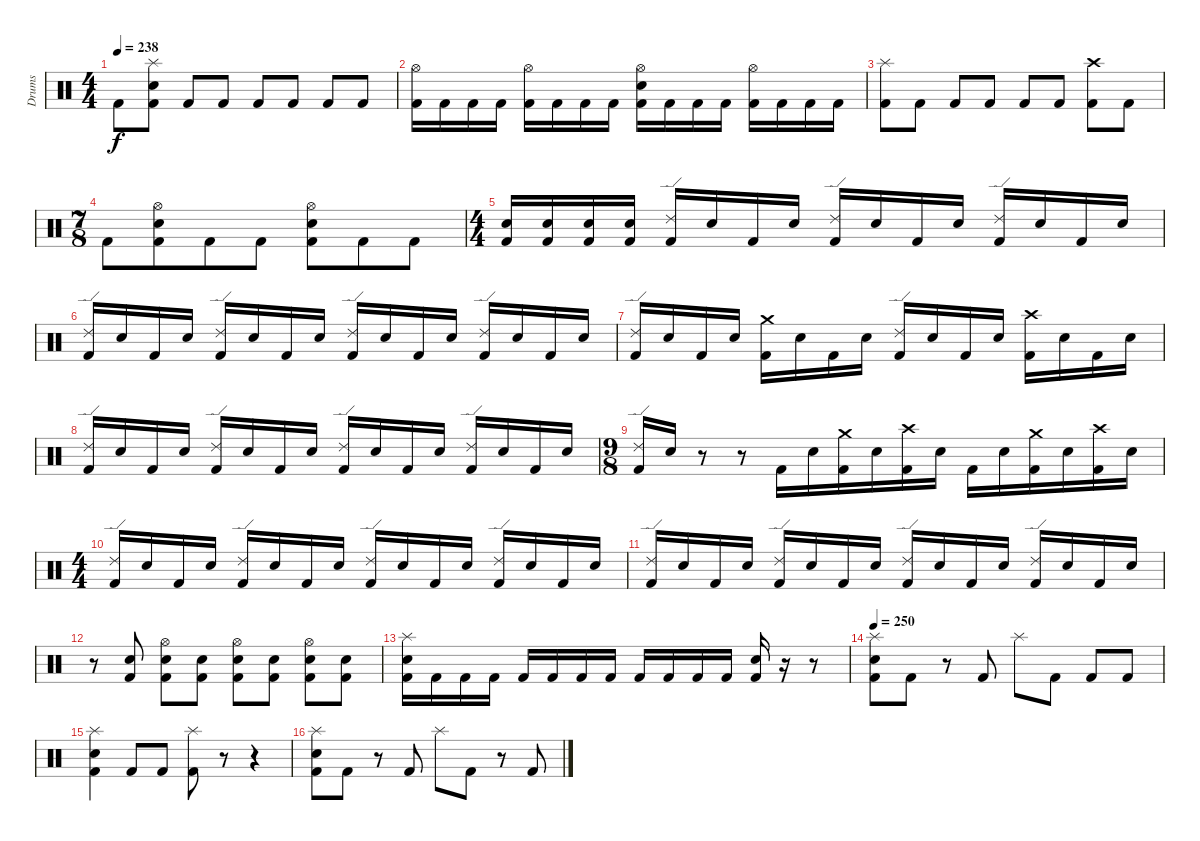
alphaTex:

\track ("Drums" "Drums") {instrument percussion}
\staff {score}
\articulation defaults
\ts (4 4)
\tempo 238
\clef neutral
\ks c "Kick (hit) 2".8{dy f}
("Kick (hit) 2" "Electric Snare (hit)" "Splash (hit)").8 "Kick (hit) 2".8 "Kick (hit) 2".8 "Kick (hit) 2".8 "Kick (hit) 2".8 "Kick (hit) 2".8 "Kick (hit) 2".8 |
("Kick (hit) 2" "Hi-Hat (open)").16 "Kick (hit) 2".16 "Kick (hit) 2".16 "Kick (hit) 2".16 ("Kick (hit) 2" "Hi-Hat (open)").16 "Kick (hit) 2".16 "Kick (hit) 2".16 "Kick (hit) 2".16 ("Kick (hit) 2" "Electric Snare (hit)" "Hi-Hat (open)").16 "Kick (hit) 2".16 "Kick (hit) 2".16 "Kick (hit) 2".16 ("Kick (hit) 2" "Hi-Hat (open)").16 "Kick (hit) 2".16 "Kick (hit) 2".16 "Kick (hit) 2".16 |
("Kick (hit) 2" "Splash (hit)").8 "Kick (hit) 2".8 "Kick (hit) 2".8 "Kick (hit) 2".8 "Kick (hit) 2".8 "Kick (hit) 2".8 ("Kick (hit) 2" "Crash high (hit)").8 "Kick (hit) 2".8 |
\ts (7 8)
"Kick (hit) 2".8 ("Kick (hit) 2" "Electric Snare (hit)" "Hi-Hat (open)").8 "Kick (hit) 2".8 "Kick (hit) 2".8 ("Kick (hit) 2" "Electric Snare (hit)" "Hi-Hat (open)").8 "Kick (hit) 2".8 "Kick (hit) 2".8 |
\ts (4 4)
("Kick (hit) 2" "Electric Snare (hit)").16 ("Kick (hit) 2" "Electric Snare (hit)").16 ("Kick (hit) 2" "Electric Snare (hit)").16 ("Kick (hit) 2" "Electric Snare (hit)").16 ("Kick (hit) 2" "Ride (edge) 2").16 "Electric Snare (hit)".16 "Kick (hit) 2".16 "Electric Snare (hit)".16 ("Kick (hit) 2" "Ride (edge) 2").16 "Electric Snare (hit)".16 "Kick (hit) 2".16 "Electric Snare (hit)".16 ("Kick (hit) 2" "Ride (edge) 2").16 "Electric Snare (hit)".16 "Kick (hit) 2".16 "Electric Snare (hit)".16 |
("Kick (hit) 2" "Ride (edge) 2").16 "Electric Snare (hit)".16 "Kick (hit) 2".16 "Electric Snare (hit)".16 ("Kick (hit) 2" "Ride (edge) 2").16 "Electric Snare (hit)".16 "Kick (hit) 2".16 "Electric Snare (hit)".16 ("Kick (hit) 2" "Ride (edge) 2").16 "Electric Snare (hit)".16 "Kick (hit) 2".16 "Electric Snare (hit)".16 ("Kick (hit) 2" "Ride (edge) 2").16 "Electric Snare (hit)".16 "Kick (hit) 2".16 "Electric Snare (hit)".16 |
("Kick (hit) 2" "Ride (edge) 2").16 "Electric Snare (hit)".16 "Kick (hit) 2".16 "Electric Snare (hit)".16 ("Kick (hit) 2" "Crash medium (hit)").16 "Electric Snare (hit)".16 "Kick (hit) 2".16 "Electric Snare (hit)".16 ("Kick (hit) 2" "Ride (edge) 2").16 "Electric Snare (hit)".16 "Kick (hit) 2".16 "Electric Snare (hit)".16 ("Kick (hit) 2" "Crash high (hit)").16 "Electric Snare (hit)".16 "Kick (hit) 2".16 "Electric Snare (hit)".16 |
("Kick (hit) 2" "Ride (edge) 2").16 "Electric Snare (hit)".16 "Kick (hit) 2".16 "Electric Snare (hit)".16 ("Kick (hit) 2" "Ride (edge) 2").16 "Electric Snare (hit)".16 "Kick (hit) 2".16 "Electric Snare (hit)".16 ("Kick (hit) 2" "Ride (edge) 2").16 "Electric Snare (hit)".16 "Kick (hit) 2".16 "Electric Snare (hit)".16 ("Kick (hit) 2" "Ride (edge) 2").16 "Electric Snare (hit)".16 "Kick (hit) 2".16 "Electric Snare (hit)".16 |
\ts (9 8)
("Kick (hit) 2" "Ride (edge) 2").16 "Electric Snare (hit)".16 r.8 r.8 "Kick (hit) 2".16 "Electric Snare (hit)".16 ("Kick (hit) 2" "Crash medium (hit)").16 "Electric Snare (hit)".16 ("Kick (hit) 2" "Crash high (hit)").16 "Electric Snare (hit)".16 "Kick (hit) 2".16 "Electric Snare (hit)".16 ("Kick (hit) 2" "Crash medium (hit)").16 "Electric Snare (hit)".16 ("Kick (hit) 2" "Crash high (hit)").16 "Electric Snare (hit)".16 |
\ts (4 4)
("Kick (hit) 2" "Ride (edge) 2").16 "Electric Snare (hit)".16 "Kick (hit) 2".16 "Electric Snare (hit)".16 ("Kick (hit) 2" "Ride (edge) 2").16 "Electric Snare (hit)".16 "Kick (hit) 2".16 "Electric Snare (hit)".16 ("Kick (hit) 2" "Ride (edge) 2").16 "Electric Snare (hit)".16 "Kick (hit) 2".16 "Electric Snare (hit)".16 ("Kick (hit) 2" "Ride (edge) 2").16 "Electric Snare (hit)".16 "Kick (hit) 2".16 "Electric Snare (hit)".16 |
("Kick (hit) 2" "Ride (edge) 2").16 "Electric Snare (hit)".16 "Kick (hit) 2".16 "Electric Snare (hit)".16 ("Kick (hit) 2" "Ride (edge) 2").16 "Electric Snare (hit)".16 "Kick (hit) 2".16 "Electric Snare (hit)".16 ("Kick (hit) 2" "Ride (edge) 2").16 "Electric Snare (hit)".16 "Kick (hit) 2".16 "Electric Snare (hit)".16 ("Kick (hit) 2" "Ride (edge) 2").16 "Electric Snare (hit)".16 "Kick (hit) 2".16 "Electric Snare (hit)".16 |
r.8 ("Kick (hit) 2" "Electric Snare (hit)").8 ("Kick (hit) 2" "Electric Snare (hit)" "Hi-Hat (open)").8 ("Kick (hit) 2" "Electric Snare (hit)").8 ("Kick (hit) 2" "Electric Snare (hit)" "Hi-Hat (open)").8 ("Kick (hit) 2" "Electric Snare (hit)").8 ("Kick (hit) 2" "Electric Snare (hit)" "Hi-Hat (open)").8 ("Kick (hit) 2" "Electric Snare (hit)").8 |
("Kick (hit) 2" "Electric Snare (hit)" "Splash (hit)").16 "Kick (hit) 2".16 "Kick (hit) 2".16 "Kick (hit) 2".16 "Kick (hit) 2".16 "Kick (hit) 2".16 "Kick (hit) 2".16 "Kick (hit) 2".16 "Kick (hit) 2".16 "Kick (hit) 2".16 "Kick (hit) 2".16 "Kick (hit) 2".16 ("Kick (hit) 2" "Electric Snare (hit)").16 r.16 r.8 |
\tempo 250
("Kick (hit) 2" "Electric Snare (hit)" "Splash (hit)").8 "Kick (hit) 2".8 r.8 "Kick (hit) 2".8 "Splash (hit)".8 "Kick (hit) 2".8 "Kick (hit) 2".8 "Kick (hit) 2".8 |
("Kick (hit) 2" "Electric Snare (hit)" "Splash (hit)").4 "Kick (hit) 2".8 "Kick (hit) 2".8 ("Kick (hit) 2" "Splash (hit)").8 r.8 r.4 |
("Kick (hit) 2" "Electric Snare (hit)" "Splash (hit)").8 "Kick (hit) 2".8 r.8 "Kick (hit) 2".8 "Splash (hit)".8 "Kick (hit) 2".8 r.8 "Kick (hit) 2".8
